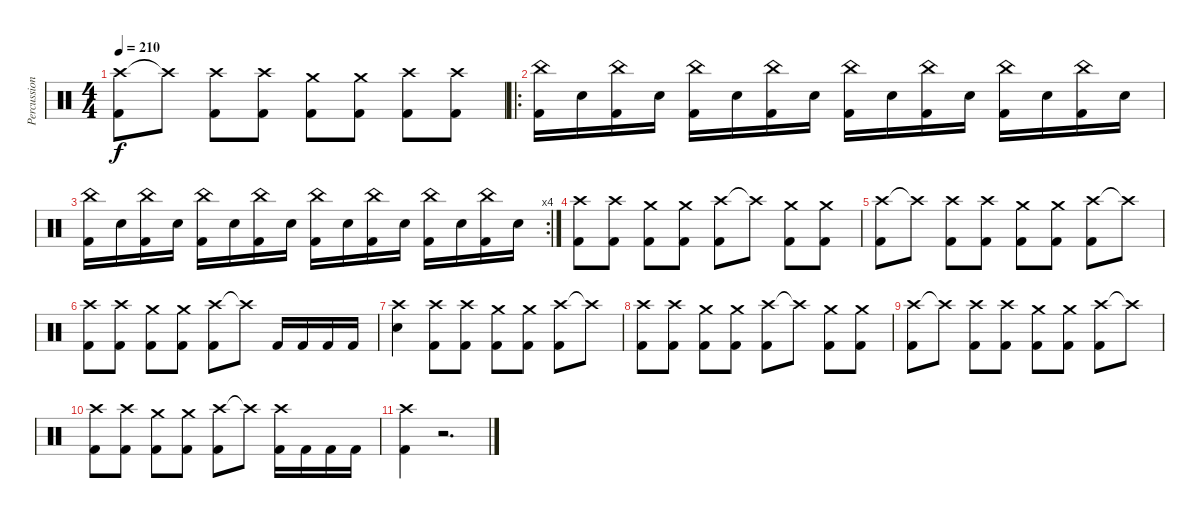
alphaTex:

\track ("Percussion" "Percussion") {instrument percussion}
\staff {score}
\articulation defaults
\ts (4 4)
\tempo 210
\clef neutral
\ks c
("Crash high (hit)" "Kick (hit) 2").8{dy f} "Crash high (hit)"{t}.8 ("Crash high (hit)" "Kick (hit) 2").8 ("Crash high (hit)" "Kick (hit) 2").8 ("Crash medium (hit)" "Kick (hit) 2").8 ("Crash medium (hit)" "Kick (hit) 2").8 ("Crash high (hit)" "Kick (hit) 2").8 ("Crash high (hit)" "Kick (hit) 2").8 |
\ro
("China (hit)" "Kick (hit) 2").16 "Electric Snare (hit)".16 ("China (hit)" "Kick (hit) 2").16 "Electric Snare (hit)".16 ("China (hit)" "Kick (hit) 2").16 "Electric Snare (hit)".16 ("China (hit)" "Kick (hit) 2").16 "Electric Snare (hit)".16 ("China (hit)" "Kick (hit) 2").16 "Electric Snare (hit)".16 ("China (hit)" "Kick (hit) 2").16 "Electric Snare (hit)".16 ("China (hit)" "Kick (hit) 2").16 "Electric Snare (hit)".16 ("China (hit)" "Kick (hit) 2").16 "Electric Snare (hit)".16 |
\rc 4
("China (hit)" "Kick (hit) 2").16 "Electric Snare (hit)".16 ("China (hit)" "Kick (hit) 2").16 "Electric Snare (hit)".16 ("China (hit)" "Kick (hit) 2").16 "Electric Snare (hit)".16 ("China (hit)" "Kick (hit) 2").16 "Electric Snare (hit)".16 ("China (hit)" "Kick (hit) 2").16 "Electric Snare (hit)".16 ("China (hit)" "Kick (hit) 2").16 "Electric Snare (hit)".16 ("China (hit)" "Kick (hit) 2").16 "Electric Snare (hit)".16 ("China (hit)" "Kick (hit) 2").16 "Electric Snare (hit)".16 |
("Crash high (hit)" "Kick (hit) 2").8 ("Crash high (hit)" "Kick (hit) 2").8 ("Crash medium (hit)" "Kick (hit) 2").8 ("Crash medium (hit)" "Kick (hit) 2").8 ("Crash high (hit)" "Kick (hit) 2").8 "Crash high (hit)"{t}.8 ("Crash medium (hit)" "Kick (hit) 2").8 ("Crash medium (hit)" "Kick (hit) 2").8 |
("Crash high (hit)" "Kick (hit) 2").8 "Crash high (hit)"{t}.8 ("Crash high (hit)" "Kick (hit) 2").8 ("Crash high (hit)" "Kick (hit) 2").8 ("Crash medium (hit)" "Kick (hit) 2").8 ("Crash medium (hit)" "Kick (hit) 2").8 ("Crash high (hit)" "Kick (hit) 2").8 "Crash high (hit)"{t}.8 |
("Crash high (hit)" "Kick (hit) 2").8 ("Crash high (hit)" "Kick (hit) 2").8 ("Crash medium (hit)" "Kick (hit) 2").8 ("Crash medium (hit)" "Kick (hit) 2").8 ("Crash high (hit)" "Kick (hit) 2").8 "Crash high (hit)"{t}.8 "Kick (hit) 2".16 "Kick (hit) 2".16 "Kick (hit) 2".16 "Kick (hit) 2".16 |
("Crash high (hit)" "Electric Snare (hit)").4 ("Crash high (hit)" "Kick (hit) 2").8 ("Crash high (hit)" "Kick (hit) 2").8 ("Crash medium (hit)" "Kick (hit) 2").8 ("Crash medium (hit)" "Kick (hit) 2").8 ("Crash high (hit)" "Kick (hit) 2").8 "Crash high (hit)"{t}.8 |
("Crash high (hit)" "Kick (hit) 2").8 ("Crash high (hit)" "Kick (hit) 2").8 ("Crash medium (hit)" "Kick (hit) 2").8 ("Crash medium (hit)" "Kick (hit) 2").8 ("Crash high (hit)" "Kick (hit) 2").8 "Crash high (hit)"{t}.8 ("Crash medium (hit)" "Kick (hit) 2").8 ("Crash medium (hit)" "Kick (hit) 2").8 |
("Crash high (hit)" "Kick (hit) 2").8 "Crash high (hit)"{t}.8 ("Crash high (hit)" "Kick (hit) 2").8 ("Crash high (hit)" "Kick (hit) 2").8 ("Crash medium (hit)" "Kick (hit) 2").8 ("Crash medium (hit)" "Kick (hit) 2").8 ("Crash high (hit)" "Kick (hit) 2").8 "Crash high (hit)"{t}.8 |
("Crash high (hit)" "Kick (hit) 2").8 ("Crash high (hit)" "Kick (hit) 2").8 ("Crash medium (hit)" "Kick (hit) 2").8 ("Crash medium (hit)" "Kick (hit) 2").8 ("Crash high (hit)" "Kick (hit) 2").8 "Crash high (hit)"{t}.8 ("Crash high (hit)" "Kick (hit) 2").16 "Kick (hit) 2".16 "Kick (hit) 2".16 "Kick (hit) 2".16 |
("Crash high (hit)" "Kick (hit) 2").4 r.2{d}
